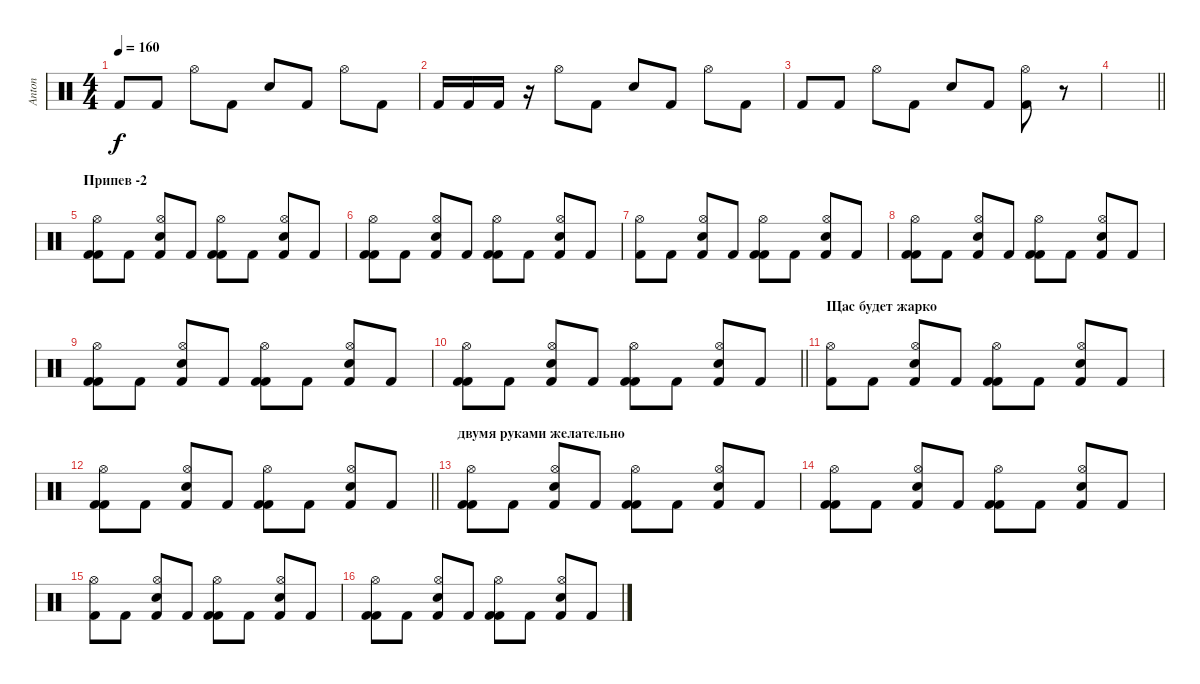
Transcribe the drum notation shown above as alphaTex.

\track ("Anton" "Anton") {instrument percussion}
\staff {score}
\articulation defaults
\ts (4 4)
\tempo 160
\clef neutral
\ks c "Kick (hit) 2".8{dy f} "Kick (hit) 2".8 "Hi-Hat (open)".8 "Kick (hit) 2".8 "Electric Snare (hit)".8 "Kick (hit) 2".8 "Hi-Hat (open)".8 "Kick (hit) 2".8
|
"Kick (hit) 2".16 "Kick (hit) 2".16 "Kick (hit) 2".16 r.16 "Hi-Hat (open)".8 "Kick (hit) 2".8 "Electric Snare (hit)".8 "Kick (hit) 2".8 "Hi-Hat (open)".8 "Kick (hit) 2".8 |
"Kick (hit) 2".8 "Kick (hit) 2".8 "Hi-Hat (open)".8 "Kick (hit) 2".8 "Electric Snare (hit)".8 "Kick (hit) 2".8 ("Kick (hit) 2" "Hi-Hat (open)").8 r.8 |
\barLineRight lightlight
|
\section ("" "Припев -2")
("Kick (hit) 2" "Hi-Hat (open)" "Kick (hit) 2").8 "Kick (hit) 2".8 ("Electric Snare (hit)" "Hi-Hat (open)" "Kick (hit) 2").8 "Kick (hit) 2".8 ("Kick (hit) 2" "Hi-Hat (open)" "Kick (hit) 2").8 "Kick (hit) 2".8 ("Electric Snare (hit)" "Hi-Hat (open)" "Kick (hit) 2").8 "Kick (hit) 2".8 |
("Kick (hit) 2" "Hi-Hat (open)" "Kick (hit) 2").8 "Kick (hit) 2".8 ("Electric Snare (hit)" "Hi-Hat (open)" "Kick (hit) 2").8 "Kick (hit) 2".8 ("Kick (hit) 2" "Hi-Hat (open)" "Kick (hit) 2").8 "Kick (hit) 2".8 ("Electric Snare (hit)" "Hi-Hat (open)" "Kick (hit) 2").8 "Kick (hit) 2".8 |
("Kick (hit) 2" "Hi-Hat (open)").8 "Kick (hit) 2".8 ("Electric Snare (hit)" "Hi-Hat (open)" "Kick (hit) 2").8 "Kick (hit) 2".8 ("Kick (hit) 2" "Hi-Hat (open)" "Kick (hit) 2").8 "Kick (hit) 2".8 ("Electric Snare (hit)" "Hi-Hat (open)" "Kick (hit) 2").8 "Kick (hit) 2".8 |
("Kick (hit) 2" "Hi-Hat (open)" "Kick (hit) 2").8 "Kick (hit) 2".8 ("Electric Snare (hit)" "Hi-Hat (open)" "Kick (hit) 2").8 "Kick (hit) 2".8 ("Kick (hit) 2" "Hi-Hat (open)" "Kick (hit) 2").8 "Kick (hit) 2".8 ("Electric Snare (hit)" "Hi-Hat (open)" "Kick (hit) 2").8 "Kick (hit) 2".8 |
("Kick (hit) 2" "Hi-Hat (open)" "Kick (hit) 2").8 "Kick (hit) 2".8 ("Electric Snare (hit)" "Hi-Hat (open)" "Kick (hit) 2").8 "Kick (hit) 2".8 ("Kick (hit) 2" "Hi-Hat (open)" "Kick (hit) 2").8 "Kick (hit) 2".8 ("Electric Snare (hit)" "Hi-Hat (open)" "Kick (hit) 2").8 "Kick (hit) 2".8 |
\barLineRight lightlight
("Kick (hit) 2" "Hi-Hat (open)" "Kick (hit) 2").8 "Kick (hit) 2".8 ("Electric Snare (hit)" "Hi-Hat (open)" "Kick (hit) 2").8 "Kick (hit) 2".8 ("Kick (hit) 2" "Hi-Hat (open)" "Kick (hit) 2").8 "Kick (hit) 2".8 ("Electric Snare (hit)" "Hi-Hat (open)" "Kick (hit) 2").8 "Kick (hit) 2".8 |
\section ("" "Щас будет жарко")
("Kick (hit) 2" "Hi-Hat (open)").8 "Kick (hit) 2".8 ("Electric Snare (hit)" "Hi-Hat (open)" "Kick (hit) 2").8 "Kick (hit) 2".8 ("Kick (hit) 2" "Hi-Hat (open)" "Kick (hit) 2").8 "Kick (hit) 2".8 ("Electric Snare (hit)" "Hi-Hat (open)" "Kick (hit) 2").8 "Kick (hit) 2".8 |
\barLineRight lightlight
("Kick (hit) 2" "Hi-Hat (open)" "Kick (hit) 2").8 "Kick (hit) 2".8 ("Electric Snare (hit)" "Hi-Hat (open)" "Kick (hit) 2").8 "Kick (hit) 2".8 ("Kick (hit) 2" "Hi-Hat (open)" "Kick (hit) 2").8 "Kick (hit) 2".8 ("Electric Snare (hit)" "Hi-Hat (open)" "Kick (hit) 2").8 "Kick (hit) 2".8 |
\section ("" "двумя руками желательно")
("Kick (hit) 2" "Hi-Hat (open)" "Kick (hit) 2").8 "Kick (hit) 2".8 ("Electric Snare (hit)" "Hi-Hat (open)" "Kick (hit) 2").8 "Kick (hit) 2".8 ("Kick (hit) 2" "Hi-Hat (open)" "Kick (hit) 2").8 "Kick (hit) 2".8 ("Electric Snare (hit)" "Hi-Hat (open)" "Kick (hit) 2").8 "Kick (hit) 2".8 |
("Kick (hit) 2" "Hi-Hat (open)" "Kick (hit) 2").8 "Kick (hit) 2".8 ("Electric Snare (hit)" "Hi-Hat (open)" "Kick (hit) 2").8 "Kick (hit) 2".8 ("Kick (hit) 2" "Hi-Hat (open)" "Kick (hit) 2").8 "Kick (hit) 2".8 ("Electric Snare (hit)" "Hi-Hat (open)" "Kick (hit) 2").8 "Kick (hit) 2".8 |
("Kick (hit) 2" "Hi-Hat (open)").8 "Kick (hit) 2".8 ("Electric Snare (hit)" "Hi-Hat (open)" "Kick (hit) 2").8 "Kick (hit) 2".8 ("Kick (hit) 2" "Hi-Hat (open)" "Kick (hit) 2").8 "Kick (hit) 2".8 ("Electric Snare (hit)" "Hi-Hat (open)" "Kick (hit) 2").8 "Kick (hit) 2".8 |
("Kick (hit) 2" "Hi-Hat (open)" "Kick (hit) 2").8 "Kick (hit) 2".8 ("Electric Snare (hit)" "Hi-Hat (open)" "Kick (hit) 2").8 "Kick (hit) 2".8 ("Kick (hit) 2" "Hi-Hat (open)" "Kick (hit) 2").8 "Kick (hit) 2".8 ("Electric Snare (hit)" "Hi-Hat (open)" "Kick (hit) 2").8 "Kick (hit) 2".8
